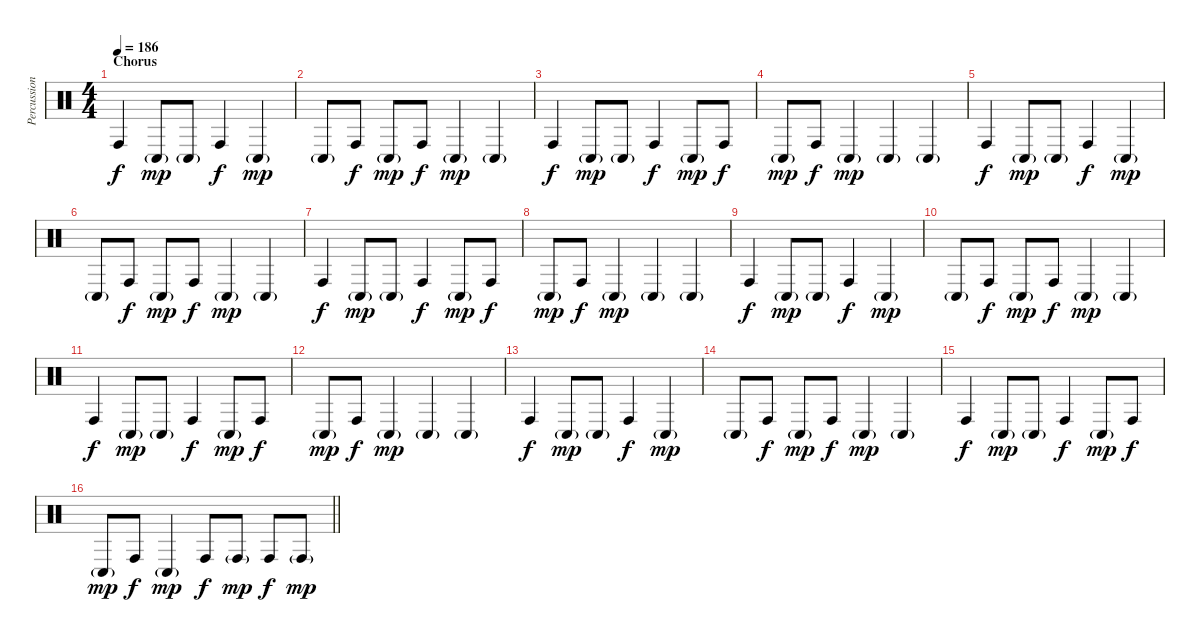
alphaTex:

\track ("Percussion" "Percussion") {instrument percussion}
\staff {score}
\articulation defaults
\ts (4 4)
\section ("" "Chorus")
\tempo 186
\clef neutral
\ks c "Conga high (hit)".4{dy f} "Conga low (hit)"{g}.8{dy mp} "Conga low (hit)"{g}.8 "Conga high (hit)".4{dy f} "Conga low (hit)"{g}.4{dy mp}
|
"Conga low (hit)"{g}.8 "Conga high (hit)".8{dy f} "Conga low (hit)"{g}.8{dy mp} "Conga high (hit)".8{dy f} "Conga low (hit)"{g}.4{dy mp} "Conga low (hit)"{g}.4 |
"Conga high (hit)".4{dy f} "Conga low (hit)"{g}.8{dy mp} "Conga low (hit)"{g}.8 "Conga high (hit)".4{dy f} "Conga low (hit)"{g}.8{dy mp} "Conga high (hit)".8{dy f} |
"Conga low (hit)"{g}.8{dy mp} "Conga high (hit)".8{dy f} "Conga low (hit)"{g}.4{dy mp} "Conga low (hit)"{g}.4 "Conga low (hit)"{g}.4 |
"Conga high (hit)".4{dy f} "Conga low (hit)"{g}.8{dy mp} "Conga low (hit)"{g}.8 "Conga high (hit)".4{dy f} "Conga low (hit)"{g}.4{dy mp} |
"Conga low (hit)"{g}.8 "Conga high (hit)".8{dy f} "Conga low (hit)"{g}.8{dy mp} "Conga high (hit)".8{dy f} "Conga low (hit)"{g}.4{dy mp} "Conga low (hit)"{g}.4 |
"Conga high (hit)".4{dy f} "Conga low (hit)"{g}.8{dy mp} "Conga low (hit)"{g}.8 "Conga high (hit)".4{dy f} "Conga low (hit)"{g}.8{dy mp} "Conga high (hit)".8{dy f} |
"Conga low (hit)"{g}.8{dy mp} "Conga high (hit)".8{dy f} "Conga low (hit)"{g}.4{dy mp} "Conga low (hit)"{g}.4 "Conga low (hit)"{g}.4 |
"Conga high (hit)".4{dy f} "Conga low (hit)"{g}.8{dy mp} "Conga low (hit)"{g}.8 "Conga high (hit)".4{dy f} "Conga low (hit)"{g}.4{dy mp} |
"Conga low (hit)"{g}.8 "Conga high (hit)".8{dy f} "Conga low (hit)"{g}.8{dy mp} "Conga high (hit)".8{dy f} "Conga low (hit)"{g}.4{dy mp} "Conga low (hit)"{g}.4 |
"Conga high (hit)".4{dy f} "Conga low (hit)"{g}.8{dy mp} "Conga low (hit)"{g}.8 "Conga high (hit)".4{dy f} "Conga low (hit)"{g}.8{dy mp} "Conga high (hit)".8{dy f} |
"Conga low (hit)"{g}.8{dy mp} "Conga high (hit)".8{dy f} "Conga low (hit)"{g}.4{dy mp} "Conga low (hit)"{g}.4 "Conga low (hit)"{g}.4 |
"Conga high (hit)".4{dy f} "Conga low (hit)"{g}.8{dy mp} "Conga low (hit)"{g}.8 "Conga high (hit)".4{dy f} "Conga low (hit)"{g}.4{dy mp} |
"Conga low (hit)"{g}.8 "Conga high (hit)".8{dy f} "Conga low (hit)"{g}.8{dy mp} "Conga high (hit)".8{dy f} "Conga low (hit)"{g}.4{dy mp} "Conga low (hit)"{g}.4 |
"Conga high (hit)".4{dy f} "Conga low (hit)"{g}.8{dy mp} "Conga low (hit)"{g}.8 "Conga high (hit)".4{dy f} "Conga low (hit)"{g}.8{dy mp} "Conga high (hit)".8{dy f} |
\barLineRight lightlight "Conga low (hit)"{g}.8{dy mp} "Conga high (hit)".8{dy f} "Conga low (hit)"{g}.4{dy mp} "Conga high (hit)".8{dy f} "Conga high (hit)"{g}.8{dy mp} "Conga high (hit)".8{dy f} "Conga high (hit)"{g}.8{dy mp}
